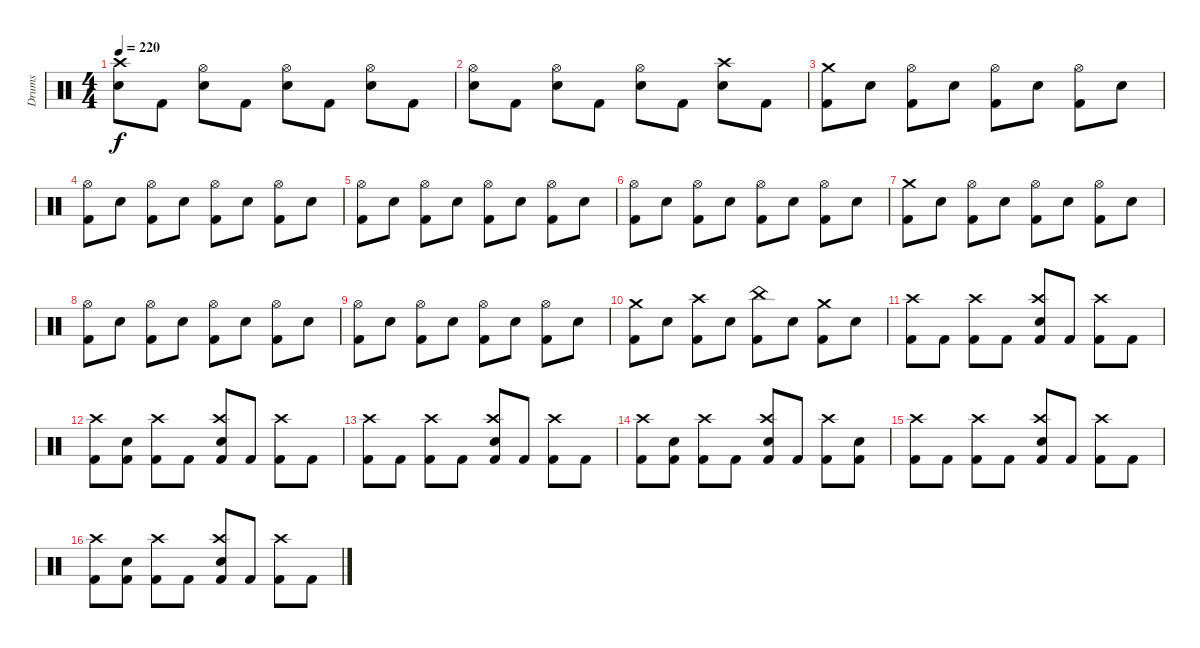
\track ("Drums" "Drums") {instrument percussion}
\staff {score}
\articulation defaults
\ts (4 4)
\tempo 220
\clef neutral
\ks c
("Electric Snare (hit)" "Crash high (hit)").8{dy f} "Kick (hit) 2".8 ("Electric Snare (hit)" "Hi-Hat (open)").8 "Kick (hit) 2".8 ("Electric Snare (hit)" "Hi-Hat (open)").8 "Kick (hit) 2".8 ("Electric Snare (hit)" "Hi-Hat (open)").8 "Kick (hit) 2".8 |
("Electric Snare (hit)" "Hi-Hat (open)").8 "Kick (hit) 2".8 ("Electric Snare (hit)" "Hi-Hat (open)").8 "Kick (hit) 2".8 ("Electric Snare (hit)" "Hi-Hat (open)").8 "Kick (hit) 2".8 ("Electric Snare (hit)" "Crash high (hit)").8 "Kick (hit) 2".8 |
("Kick (hit) 2" "Crash medium (hit)").8 "Electric Snare (hit)".8 ("Kick (hit) 2" "Hi-Hat (open)").8 "Electric Snare (hit)".8 ("Kick (hit) 2" "Hi-Hat (open)").8 "Electric Snare (hit)".8 ("Kick (hit) 2" "Hi-Hat (open)").8 "Electric Snare (hit)".8 |
("Kick (hit) 2" "Hi-Hat (open)").8 "Electric Snare (hit)".8 ("Kick (hit) 2" "Hi-Hat (open)").8 "Electric Snare (hit)".8 ("Kick (hit) 2" "Hi-Hat (open)").8 "Electric Snare (hit)".8 ("Kick (hit) 2" "Hi-Hat (open)").8 "Electric Snare (hit)".8 |
("Kick (hit) 2" "Hi-Hat (open)").8 "Electric Snare (hit)".8 ("Kick (hit) 2" "Hi-Hat (open)").8 "Electric Snare (hit)".8 ("Kick (hit) 2" "Hi-Hat (open)").8 "Electric Snare (hit)".8 ("Kick (hit) 2" "Hi-Hat (open)").8 "Electric Snare (hit)".8 |
("Kick (hit) 2" "Hi-Hat (open)").8 "Electric Snare (hit)".8 ("Kick (hit) 2" "Hi-Hat (open)").8 "Electric Snare (hit)".8 ("Kick (hit) 2" "Hi-Hat (open)").8 "Electric Snare (hit)".8 ("Kick (hit) 2" "Hi-Hat (open)").8 "Electric Snare (hit)".8 |
("Kick (hit) 2" "Crash medium (hit)").8 "Electric Snare (hit)".8 ("Kick (hit) 2" "Hi-Hat (open)").8 "Electric Snare (hit)".8 ("Kick (hit) 2" "Hi-Hat (open)").8 "Electric Snare (hit)".8 ("Kick (hit) 2" "Hi-Hat (open)").8 "Electric Snare (hit)".8 |
("Kick (hit) 2" "Hi-Hat (open)").8 "Electric Snare (hit)".8 ("Kick (hit) 2" "Hi-Hat (open)").8 "Electric Snare (hit)".8 ("Kick (hit) 2" "Hi-Hat (open)").8 "Electric Snare (hit)".8 ("Kick (hit) 2" "Hi-Hat (open)").8 "Electric Snare (hit)".8 |
("Kick (hit) 2" "Hi-Hat (open)").8 "Electric Snare (hit)".8 ("Kick (hit) 2" "Hi-Hat (open)").8 "Electric Snare (hit)".8 ("Kick (hit) 2" "Hi-Hat (open)").8 "Electric Snare (hit)".8 ("Kick (hit) 2" "Hi-Hat (open)").8 "Electric Snare (hit)".8 |
("Kick (hit) 2" "Crash medium (hit)").8 "Electric Snare (hit)".8 ("Kick (hit) 2" "Crash high (hit)").8 "Electric Snare (hit)".8 ("Kick (hit) 2" "China (hit)").8 "Electric Snare (hit)".8 ("Kick (hit) 2" "Crash medium (hit)").8 "Electric Snare (hit)".8 |
("Kick (hit) 2" "Crash high (hit)").8 "Kick (hit) 2".8 ("Kick (hit) 2" "Crash high (hit)").8 "Kick (hit) 2".8 ("Kick (hit) 2" "Crash high (hit)" "Electric Snare (hit)").8 "Kick (hit) 2".8 ("Kick (hit) 2" "Crash high (hit)").8 "Kick (hit) 2".8 |
("Kick (hit) 2" "Crash high (hit)").8 ("Kick (hit) 2" "Electric Snare (hit)").8 ("Kick (hit) 2" "Crash high (hit)").8 "Kick (hit) 2".8 ("Kick (hit) 2" "Crash high (hit)" "Electric Snare (hit)").8 "Kick (hit) 2".8 ("Kick (hit) 2" "Crash high (hit)").8 "Kick (hit) 2".8 |
("Kick (hit) 2" "Crash high (hit)").8 "Kick (hit) 2".8 ("Kick (hit) 2" "Crash high (hit)").8 "Kick (hit) 2".8 ("Kick (hit) 2" "Crash high (hit)" "Electric Snare (hit)").8 "Kick (hit) 2".8 ("Kick (hit) 2" "Crash high (hit)").8 "Kick (hit) 2".8 |
("Kick (hit) 2" "Crash high (hit)").8 ("Kick (hit) 2" "Electric Snare (hit)").8 ("Kick (hit) 2" "Crash high (hit)").8 "Kick (hit) 2".8 ("Kick (hit) 2" "Crash high (hit)" "Electric Snare (hit)").8 "Kick (hit) 2".8 ("Kick (hit) 2" "Crash high (hit)").8 ("Kick (hit) 2" "Electric Snare (hit)").8 |
("Kick (hit) 2" "Crash high (hit)").8 "Kick (hit) 2".8 ("Kick (hit) 2" "Crash high (hit)").8 "Kick (hit) 2".8 ("Kick (hit) 2" "Crash high (hit)" "Electric Snare (hit)").8 "Kick (hit) 2".8 ("Kick (hit) 2" "Crash high (hit)").8 "Kick (hit) 2".8 |
("Kick (hit) 2" "Crash high (hit)").8 ("Kick (hit) 2" "Electric Snare (hit)").8 ("Kick (hit) 2" "Crash high (hit)").8 "Kick (hit) 2".8 ("Kick (hit) 2" "Crash high (hit)" "Electric Snare (hit)").8 "Kick (hit) 2".8 ("Kick (hit) 2" "Crash high (hit)").8 "Kick (hit) 2".8
